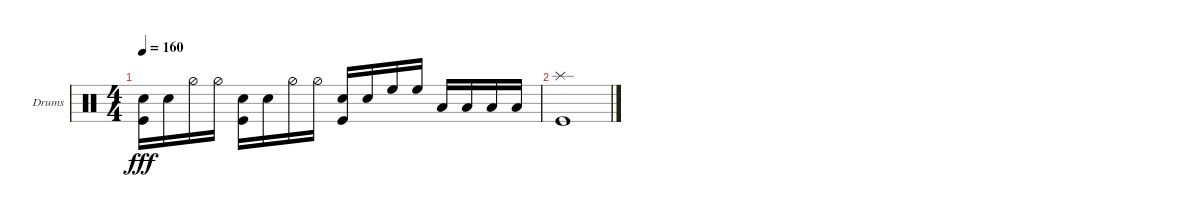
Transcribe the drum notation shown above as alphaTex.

\bracketExtendMode groupsimilarinstruments
\firstSystemTrackNameOrientation horizontal
\otherSystemsTrackNameOrientation horizontal
\track ("Drumkit" "Drums") {instrument percussion}
\staff {score}
\articulation defaults
\ts (4 4)
\tempo 160
\clef neutral
\ks c
("Kick (hit)" "Snare (hit) 2").16{dy fff} "Snare (hit) 2".16 "Hi-Hat (half)".16 "Hi-Hat (half)".16 ("Snare (hit) 2" "Kick (hit)").16 "Snare (hit) 2".16 "Hi-Hat (half)".16 "Hi-Hat (half)".16 ("Snare (hit) 2" "Kick (hit)").16 "Snare (hit) 2".16 "High Floor Tom (hit)".16 "High Floor Tom (hit)".16 "Low Tom (hit)".16 "Low Tom (hit)".16 "Low Tom (hit)".16 "Low Tom (hit)".16 |
("Splash (hit)" "Kick (hit)").1
